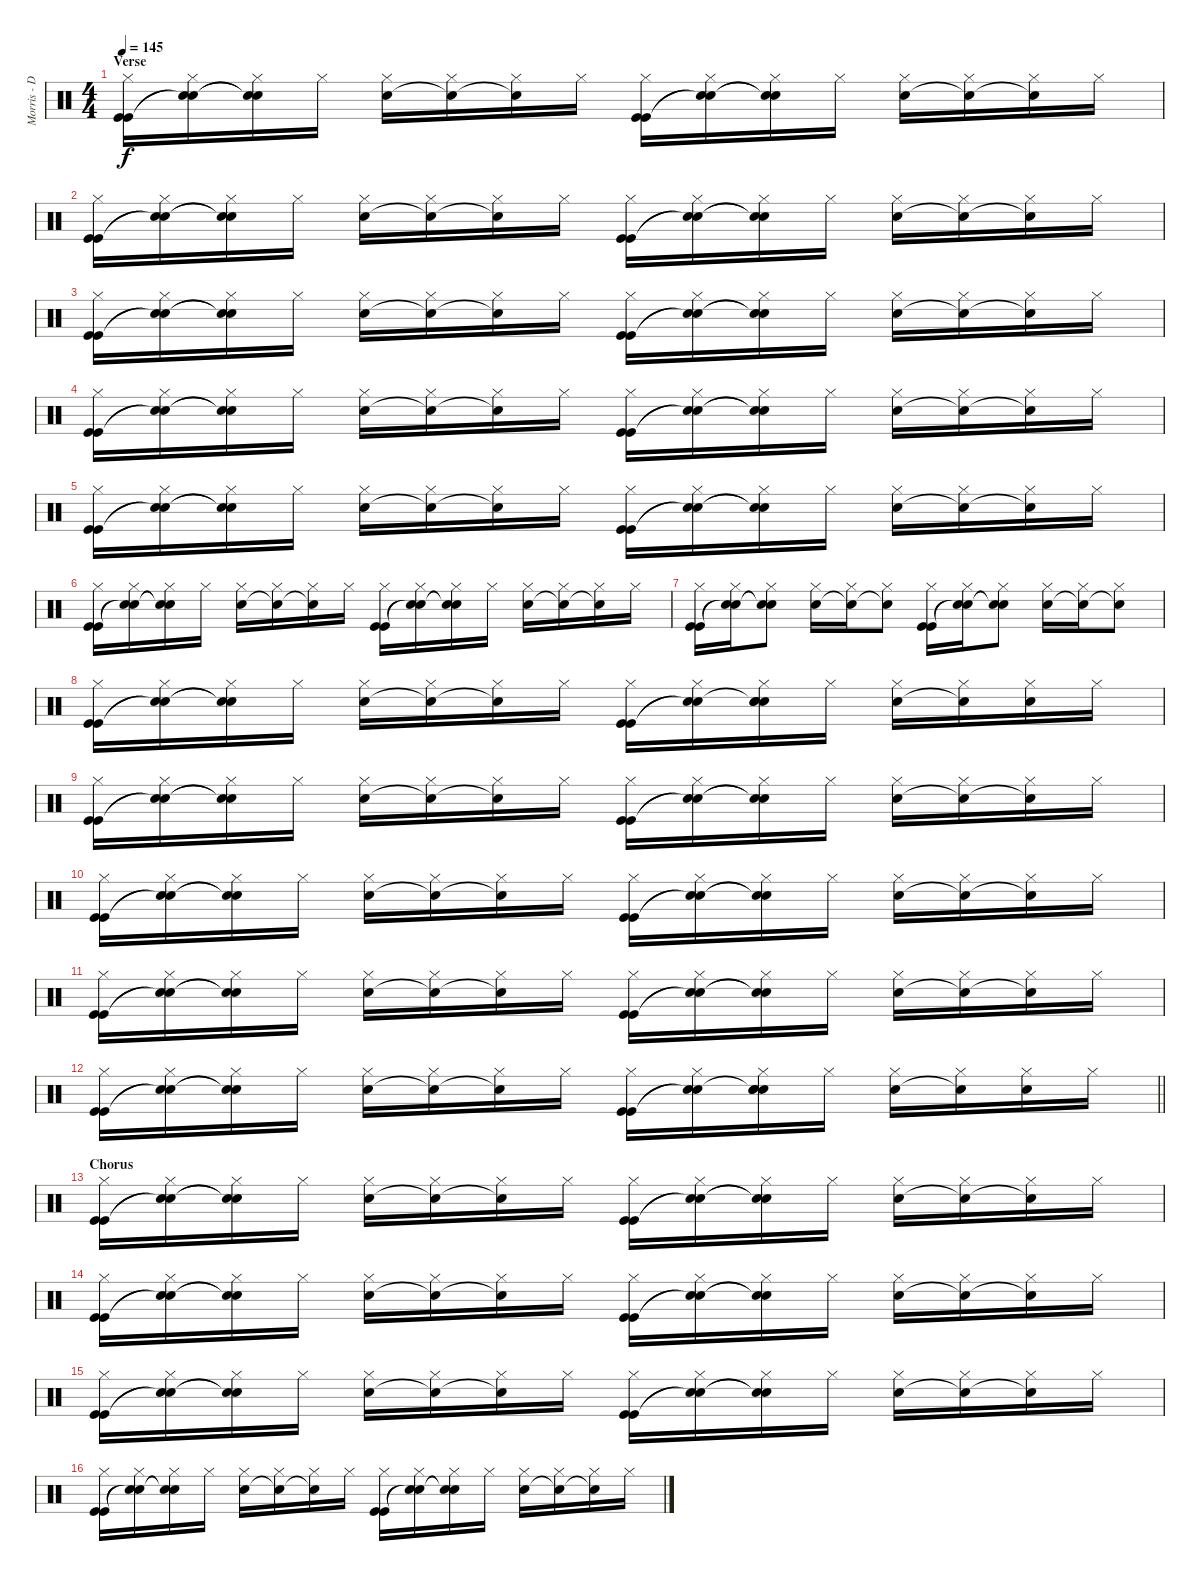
\track ("Morris - Drums" "Morris - D") {instrument percussion}
\staff {score}
\articulation defaults
\ts (4 4)
\section ("" "Verse")
\tempo 145
\clef neutral
\ks c
("Hi-Hat (closed)" "Kick (hit)" "Kick (hit)").16{dy f} ("Hi-Hat (closed)" "Snare (hit)"{t} "Snare (hit)"{t}).16 ("Hi-Hat (closed)" "Snare (hit)"{t} "Snare (hit)"{t}).16 "Hi-Hat (closed)".16 ("Hi-Hat (closed)" "Snare (hit) 2").16 ("Hi-Hat (closed)" "Snare (hit)"{t}).16 ("Hi-Hat (closed)" "Snare (hit) 2"{t}).16 "Hi-Hat (closed)".16 ("Hi-Hat (closed)" "Kick (hit)" "Kick (hit)").16 ("Hi-Hat (closed)" "Snare (hit)"{t} "Snare (hit)"{t}).16 ("Hi-Hat (closed)" "Snare (hit)"{t} "Snare (hit)"{t}).16 "Hi-Hat (closed)".16 ("Hi-Hat (closed)" "Snare (hit) 2").16 ("Hi-Hat (closed)" "Snare (hit) 2"{t}).16 ("Hi-Hat (closed)" "Snare (hit)"{t}).16 "Hi-Hat (closed)".16 |
("Hi-Hat (closed)" "Kick (hit)" "Kick (hit)").16 ("Hi-Hat (closed)" "Snare (hit)"{t} "Snare (hit)"{t}).16 ("Hi-Hat (closed)" "Snare (hit)"{t} "Snare (hit)"{t}).16 "Hi-Hat (closed)".16 ("Hi-Hat (closed)" "Snare (hit) 2").16 ("Hi-Hat (closed)" "Snare (hit)"{t}).16 ("Hi-Hat (closed)" "Snare (hit) 2"{t}).16 "Hi-Hat (closed)".16 ("Hi-Hat (closed)" "Kick (hit)" "Kick (hit)").16 ("Hi-Hat (closed)" "Snare (hit)"{t} "Snare (hit)"{t}).16 ("Hi-Hat (closed)" "Snare (hit)"{t} "Snare (hit)"{t}).16 "Hi-Hat (closed)".16 ("Hi-Hat (closed)" "Snare (hit) 2").16 ("Hi-Hat (closed)" "Snare (hit) 2"{t}).16 ("Hi-Hat (closed)" "Snare (hit)"{t}).16 "Hi-Hat (closed)".16 |
("Hi-Hat (closed)" "Kick (hit)" "Kick (hit)").16 ("Hi-Hat (closed)" "Snare (hit)"{t} "Snare (hit)"{t}).16 ("Hi-Hat (closed)" "Snare (hit)"{t} "Snare (hit)"{t}).16 "Hi-Hat (closed)".16 ("Hi-Hat (closed)" "Snare (hit) 2").16 ("Hi-Hat (closed)" "Snare (hit)"{t}).16 ("Hi-Hat (closed)" "Snare (hit) 2"{t}).16 "Hi-Hat (closed)".16 ("Hi-Hat (closed)" "Kick (hit)" "Kick (hit)").16 ("Hi-Hat (closed)" "Snare (hit)"{t} "Snare (hit)"{t}).16 ("Hi-Hat (closed)" "Snare (hit)"{t} "Snare (hit)"{t}).16 "Hi-Hat (closed)".16 ("Hi-Hat (closed)" "Snare (hit) 2").16 ("Hi-Hat (closed)" "Snare (hit) 2"{t}).16 ("Hi-Hat (closed)" "Snare (hit)"{t}).16 "Hi-Hat (closed)".16 |
("Hi-Hat (closed)" "Kick (hit)" "Kick (hit)").16 ("Hi-Hat (closed)" "Snare (hit)"{t} "Snare (hit)"{t}).16 ("Hi-Hat (closed)" "Snare (hit)"{t} "Snare (hit)"{t}).16 "Hi-Hat (closed)".16 ("Hi-Hat (closed)" "Snare (hit) 2").16 ("Hi-Hat (closed)" "Snare (hit)"{t}).16 ("Hi-Hat (closed)" "Snare (hit) 2"{t}).16 "Hi-Hat (closed)".16 ("Hi-Hat (closed)" "Kick (hit)" "Kick (hit)").16 ("Hi-Hat (closed)" "Snare (hit)"{t} "Snare (hit)"{t}).16 ("Hi-Hat (closed)" "Snare (hit)"{t} "Snare (hit)"{t}).16 "Hi-Hat (closed)".16 ("Hi-Hat (closed)" "Snare (hit) 2").16 ("Hi-Hat (closed)" "Snare (hit) 2"{t}).16 ("Hi-Hat (closed)" "Snare (hit)"{t}).16 "Hi-Hat (closed)".16 |
("Hi-Hat (closed)" "Kick (hit)" "Kick (hit)").16 ("Hi-Hat (closed)" "Snare (hit)"{t} "Snare (hit)"{t}).16 ("Hi-Hat (closed)" "Snare (hit)"{t} "Snare (hit)"{t}).16 "Hi-Hat (closed)".16 ("Hi-Hat (closed)" "Snare (hit) 2").16 ("Hi-Hat (closed)" "Snare (hit)"{t}).16 ("Hi-Hat (closed)" "Snare (hit) 2"{t}).16 "Hi-Hat (closed)".16 ("Hi-Hat (closed)" "Kick (hit)" "Kick (hit)").16 ("Hi-Hat (closed)" "Snare (hit)"{t} "Snare (hit)"{t}).16 ("Hi-Hat (closed)" "Snare (hit)"{t} "Snare (hit)"{t}).16 "Hi-Hat (closed)".16 ("Hi-Hat (closed)" "Snare (hit) 2").16 ("Hi-Hat (closed)" "Snare (hit) 2"{t}).16 ("Hi-Hat (closed)" "Snare (hit)"{t}).16 "Hi-Hat (closed)".16 |
("Hi-Hat (closed)" "Kick (hit)" "Kick (hit)").16 ("Hi-Hat (closed)" "Snare (hit)"{t} "Snare (hit)"{t}).16 ("Hi-Hat (closed)" "Snare (hit)"{t} "Snare (hit)"{t}).16 "Hi-Hat (closed)".16 ("Hi-Hat (closed)" "Snare (hit) 2").16 ("Hi-Hat (closed)" "Snare (hit)"{t}).16 ("Hi-Hat (closed)" "Snare (hit) 2"{t}).16 "Hi-Hat (closed)".16 ("Hi-Hat (closed)" "Kick (hit)" "Kick (hit)").16 ("Hi-Hat (closed)" "Snare (hit)"{t} "Snare (hit)"{t}).16 ("Hi-Hat (closed)" "Snare (hit)"{t} "Snare (hit)"{t}).16 "Hi-Hat (closed)".16 ("Hi-Hat (closed)" "Snare (hit) 2").16 ("Hi-Hat (closed)" "Snare (hit) 2"{t}).16 ("Hi-Hat (closed)" "Snare (hit)"{t}).16 "Hi-Hat (closed)".16 |
("Hi-Hat (closed)" "Kick (hit)" "Kick (hit)").16 ("Hi-Hat (closed)" "Snare (hit)"{t} "Snare (hit)"{t}).16 ("Hi-Hat (closed)" "Snare (hit)"{t} "Snare (hit)"{t}).8 ("Hi-Hat (closed)" "Snare (hit) 2").16 ("Hi-Hat (closed)" "Snare (hit)"{t}).16 ("Hi-Hat (closed)" "Snare (hit) 2"{t}).8 ("Hi-Hat (closed)" "Kick (hit)" "Kick (hit)").16 ("Hi-Hat (closed)" "Snare (hit)"{t} "Snare (hit)"{t}).16 ("Hi-Hat (closed)" "Snare (hit)"{t} "Snare (hit)"{t}).8 ("Hi-Hat (closed)" "Snare (hit) 2").16 ("Hi-Hat (closed)" "Snare (hit) 2"{t}).16 ("Hi-Hat (closed)" "Snare (hit)"{t}).8 |
("Hi-Hat (closed)" "Kick (hit)" "Kick (hit)").16 ("Hi-Hat (closed)" "Snare (hit)"{t} "Snare (hit)"{t}).16 ("Hi-Hat (closed)" "Snare (hit)"{t} "Snare (hit)"{t}).16 "Hi-Hat (closed)".16 ("Hi-Hat (closed)" "Snare (hit) 2").16 ("Hi-Hat (closed)" "Snare (hit)"{t}).16 ("Hi-Hat (closed)" "Snare (hit) 2"{t}).16 "Hi-Hat (closed)".16 ("Hi-Hat (closed)" "Kick (hit)" "Kick (hit)").16 ("Hi-Hat (closed)" "Snare (hit)"{t} "Snare (hit)"{t}).16 ("Hi-Hat (closed)" "Snare (hit) 2" "Snare (hit)"{t} "Snare (hit)").16 "Hi-Hat (closed)".16 ("Hi-Hat (closed)" "Snare (hit) 2").16 ("Hi-Hat (closed)" "Snare (hit) 2"{t}).16 ("Hi-Hat (closed)" "Snare (hit) 2").16 "Hi-Hat (closed)".16 |
("Hi-Hat (closed)" "Kick (hit)" "Kick (hit)").16 ("Hi-Hat (closed)" "Snare (hit)"{t} "Snare (hit)"{t}).16 ("Hi-Hat (closed)" "Snare (hit)"{t} "Snare (hit)"{t}).16 "Hi-Hat (closed)".16 ("Hi-Hat (closed)" "Snare (hit) 2").16 ("Hi-Hat (closed)" "Snare (hit)"{t}).16 ("Hi-Hat (closed)" "Snare (hit) 2"{t}).16 "Hi-Hat (closed)".16 ("Hi-Hat (closed)" "Kick (hit)" "Kick (hit)").16 ("Hi-Hat (closed)" "Snare (hit)"{t} "Snare (hit)"{t}).16 ("Hi-Hat (closed)" "Snare (hit)"{t} "Snare (hit)"{t}).16 "Hi-Hat (closed)".16 ("Hi-Hat (closed)" "Snare (hit) 2").16 ("Hi-Hat (closed)" "Snare (hit) 2"{t}).16 ("Hi-Hat (closed)" "Snare (hit)"{t}).16 "Hi-Hat (closed)".16 |
("Hi-Hat (closed)" "Kick (hit)" "Kick (hit)").16 ("Hi-Hat (closed)" "Snare (hit)"{t} "Snare (hit)"{t}).16 ("Hi-Hat (closed)" "Snare (hit)"{t} "Snare (hit)"{t}).16 "Hi-Hat (closed)".16 ("Hi-Hat (closed)" "Snare (hit) 2").16 ("Hi-Hat (closed)" "Snare (hit)"{t}).16 ("Hi-Hat (closed)" "Snare (hit) 2"{t}).16 "Hi-Hat (closed)".16 ("Hi-Hat (closed)" "Kick (hit)" "Kick (hit)").16 ("Hi-Hat (closed)" "Snare (hit)"{t} "Snare (hit)"{t}).16 ("Hi-Hat (closed)" "Snare (hit)"{t} "Snare (hit)"{t}).16 "Hi-Hat (closed)".16 ("Hi-Hat (closed)" "Snare (hit) 2").16 ("Hi-Hat (closed)" "Snare (hit) 2"{t}).16 ("Hi-Hat (closed)" "Snare (hit)"{t}).16 "Hi-Hat (closed)".16 |
("Hi-Hat (closed)" "Kick (hit)" "Kick (hit)").16 ("Hi-Hat (closed)" "Snare (hit)"{t} "Snare (hit)"{t}).16 ("Hi-Hat (closed)" "Snare (hit)"{t} "Snare (hit)"{t}).16 "Hi-Hat (closed)".16 ("Hi-Hat (closed)" "Snare (hit) 2").16 ("Hi-Hat (closed)" "Snare (hit)"{t}).16 ("Hi-Hat (closed)" "Snare (hit) 2"{t}).16 "Hi-Hat (closed)".16 ("Hi-Hat (closed)" "Kick (hit)" "Kick (hit)").16 ("Hi-Hat (closed)" "Snare (hit)"{t} "Snare (hit)"{t}).16 ("Hi-Hat (closed)" "Snare (hit)"{t} "Snare (hit)"{t}).16 "Hi-Hat (closed)".16 ("Hi-Hat (closed)" "Snare (hit) 2").16 ("Hi-Hat (closed)" "Snare (hit) 2"{t}).16 ("Hi-Hat (closed)" "Snare (hit)"{t}).16 "Hi-Hat (closed)".16 |
\barLineRight lightlight
("Hi-Hat (closed)" "Kick (hit)" "Kick (hit)").16 ("Hi-Hat (closed)" "Snare (hit)"{t} "Snare (hit)"{t}).16 ("Hi-Hat (closed)" "Snare (hit)"{t} "Snare (hit)"{t}).16 "Hi-Hat (closed)".16 ("Hi-Hat (closed)" "Snare (hit) 2").16 ("Hi-Hat (closed)" "Snare (hit)"{t}).16 ("Hi-Hat (closed)" "Snare (hit) 2"{t}).16 "Hi-Hat (closed)".16 ("Hi-Hat (closed)" "Kick (hit)" "Kick (hit)").16 ("Hi-Hat (closed)" "Snare (hit)"{t} "Snare (hit)"{t}).16 ("Hi-Hat (closed)" "Snare (hit) 2" "Snare (hit)"{t} "Snare (hit)").16 "Hi-Hat (closed)".16 ("Hi-Hat (closed)" "Snare (hit) 2").16 ("Hi-Hat (closed)" "Snare (hit) 2"{t}).16 ("Hi-Hat (closed)" "Snare (hit) 2").16 "Hi-Hat (closed)".16 |
\section ("" "Chorus")
("Hi-Hat (closed)" "Kick (hit)" "Kick (hit)").16 ("Hi-Hat (closed)" "Snare (hit)"{t} "Snare (hit)"{t}).16 ("Hi-Hat (closed)" "Snare (hit)"{t} "Snare (hit)"{t}).16 "Hi-Hat (closed)".16 ("Hi-Hat (closed)" "Snare (hit) 2").16 ("Hi-Hat (closed)" "Snare (hit)"{t}).16 ("Hi-Hat (closed)" "Snare (hit) 2"{t}).16 "Hi-Hat (closed)".16 ("Hi-Hat (closed)" "Kick (hit)" "Kick (hit)").16 ("Hi-Hat (closed)" "Snare (hit)"{t} "Snare (hit)"{t}).16 ("Hi-Hat (closed)" "Snare (hit)"{t} "Snare (hit)"{t}).16 "Hi-Hat (closed)".16 ("Hi-Hat (closed)" "Snare (hit) 2").16 ("Hi-Hat (closed)" "Snare (hit) 2"{t}).16 ("Hi-Hat (closed)" "Snare (hit)"{t}).16 "Hi-Hat (closed)".16 |
("Hi-Hat (closed)" "Kick (hit)" "Kick (hit)").16 ("Hi-Hat (closed)" "Snare (hit)"{t} "Snare (hit)"{t}).16 ("Hi-Hat (closed)" "Snare (hit)"{t} "Snare (hit)"{t}).16 "Hi-Hat (closed)".16 ("Hi-Hat (closed)" "Snare (hit) 2").16 ("Hi-Hat (closed)" "Snare (hit)"{t}).16 ("Hi-Hat (closed)" "Snare (hit) 2"{t}).16 "Hi-Hat (closed)".16 ("Hi-Hat (closed)" "Kick (hit)" "Kick (hit)").16 ("Hi-Hat (closed)" "Snare (hit)"{t} "Snare (hit)"{t}).16 ("Hi-Hat (closed)" "Snare (hit)"{t} "Snare (hit)"{t}).16 "Hi-Hat (closed)".16 ("Hi-Hat (closed)" "Snare (hit) 2").16 ("Hi-Hat (closed)" "Snare (hit) 2"{t}).16 ("Hi-Hat (closed)" "Snare (hit)"{t}).16 "Hi-Hat (closed)".16 |
("Hi-Hat (closed)" "Kick (hit)" "Kick (hit)").16 ("Hi-Hat (closed)" "Snare (hit)"{t} "Snare (hit)"{t}).16 ("Hi-Hat (closed)" "Snare (hit)"{t} "Snare (hit)"{t}).16 "Hi-Hat (closed)".16 ("Hi-Hat (closed)" "Snare (hit) 2").16 ("Hi-Hat (closed)" "Snare (hit)"{t}).16 ("Hi-Hat (closed)" "Snare (hit) 2"{t}).16 "Hi-Hat (closed)".16 ("Hi-Hat (closed)" "Kick (hit)" "Kick (hit)").16 ("Hi-Hat (closed)" "Snare (hit)"{t} "Snare (hit)"{t}).16 ("Hi-Hat (closed)" "Snare (hit)"{t} "Snare (hit)"{t}).16 "Hi-Hat (closed)".16 ("Hi-Hat (closed)" "Snare (hit) 2").16 ("Hi-Hat (closed)" "Snare (hit) 2"{t}).16 ("Hi-Hat (closed)" "Snare (hit)"{t}).16 "Hi-Hat (closed)".16 |
("Hi-Hat (closed)" "Kick (hit)" "Kick (hit)").16 ("Hi-Hat (closed)" "Snare (hit)"{t} "Snare (hit)"{t}).16 ("Hi-Hat (closed)" "Snare (hit)"{t} "Snare (hit)"{t}).16 "Hi-Hat (closed)".16 ("Hi-Hat (closed)" "Snare (hit) 2").16 ("Hi-Hat (closed)" "Snare (hit)"{t}).16 ("Hi-Hat (closed)" "Snare (hit) 2"{t}).16 "Hi-Hat (closed)".16 ("Hi-Hat (closed)" "Kick (hit)" "Kick (hit)").16 ("Hi-Hat (closed)" "Snare (hit)"{t} "Snare (hit)"{t}).16 ("Hi-Hat (closed)" "Snare (hit)"{t} "Snare (hit)"{t}).16 "Hi-Hat (closed)".16 ("Hi-Hat (closed)" "Snare (hit) 2").16 ("Hi-Hat (closed)" "Snare (hit) 2"{t}).16 ("Hi-Hat (closed)" "Snare (hit)"{t}).16 "Hi-Hat (closed)".16
